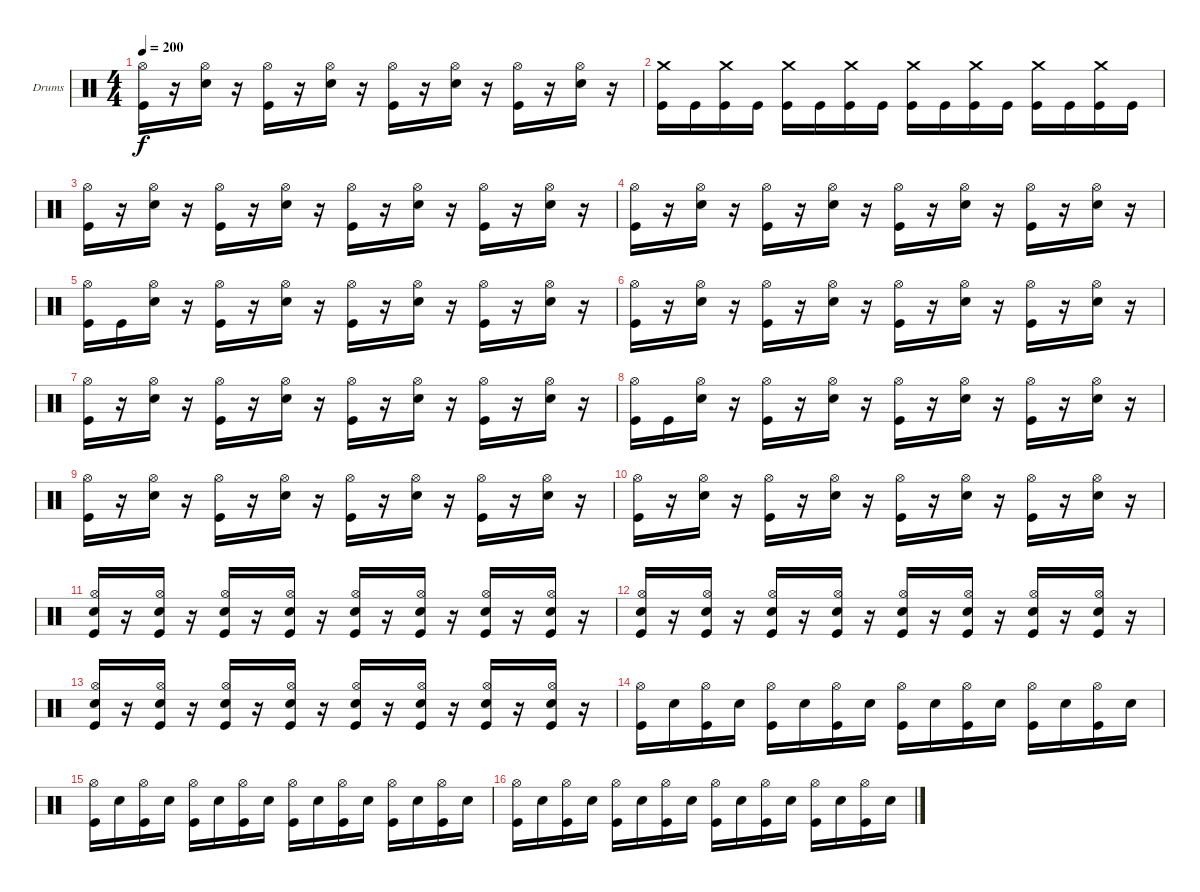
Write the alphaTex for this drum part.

\defaultSystemsLayout 4
\bracketExtendMode groupsimilarinstruments
\firstSystemTrackNameOrientation horizontal
\otherSystemsTrackNameOrientation horizontal
\track ("Drumkit" "Drums") {instrument percussion}
\staff {score}
\articulation defaults
\ts (4 4)
\tempo 200
\clef neutral
\ks c
("Kick (hit)" "Hi-Hat (open)").16{dy f} r.16 ("Snare (hit) 2" "Hi-Hat (open)").16 r.16 ("Kick (hit)" "Hi-Hat (open)").16 r.16 ("Snare (hit) 2" "Hi-Hat (open)").16 r.16 ("Kick (hit)" "Hi-Hat (open)").16 r.16 ("Snare (hit) 2" "Hi-Hat (open)").16 r.16 ("Kick (hit)" "Hi-Hat (open)").16 r.16 ("Snare (hit) 2" "Hi-Hat (open)").16 r.16 |
("Kick (hit)" "Crash medium (hit)").16 "Kick (hit)".16 ("Kick (hit)" "Crash medium (hit)").16 "Kick (hit)".16 ("Kick (hit)" "Crash medium (hit)").16 "Kick (hit)".16 ("Kick (hit)" "Crash medium (hit)").16 "Kick (hit)".16 ("Kick (hit)" "Crash medium (hit)").16 "Kick (hit)".16 ("Kick (hit)" "Crash medium (hit)").16 "Kick (hit)".16 ("Kick (hit)" "Crash medium (hit)").16 "Kick (hit)".16 ("Kick (hit)" "Crash medium (hit)").16 "Kick (hit)".16 |
("Kick (hit)" "Hi-Hat (open)").16 r.16 ("Snare (hit) 2" "Hi-Hat (open)").16 r.16 ("Kick (hit)" "Hi-Hat (open)").16 r.16 ("Snare (hit) 2" "Hi-Hat (open)").16 r.16 ("Kick (hit)" "Hi-Hat (open)").16 r.16 ("Snare (hit) 2" "Hi-Hat (open)").16 r.16 ("Kick (hit)" "Hi-Hat (open)").16 r.16 ("Snare (hit) 2" "Hi-Hat (open)").16 r.16 |
("Kick (hit)" "Hi-Hat (open)").16 r.16 ("Snare (hit) 2" "Hi-Hat (open)").16 r.16 ("Kick (hit)" "Hi-Hat (open)").16 r.16 ("Snare (hit) 2" "Hi-Hat (open)").16 r.16 ("Kick (hit)" "Hi-Hat (open)").16 r.16 ("Snare (hit) 2" "Hi-Hat (open)").16 r.16 ("Kick (hit)" "Hi-Hat (open)").16 r.16 ("Snare (hit) 2" "Hi-Hat (open)").16 r.16 |
("Kick (hit)" "Hi-Hat (open)").16 "Kick (hit)".16 ("Snare (hit) 2" "Hi-Hat (open)").16 r.16 ("Kick (hit)" "Hi-Hat (open)").16 r.16 ("Snare (hit) 2" "Hi-Hat (open)").16 r.16 ("Kick (hit)" "Hi-Hat (open)").16 r.16 ("Snare (hit) 2" "Hi-Hat (open)").16 r.16 ("Kick (hit)" "Hi-Hat (open)").16 r.16 ("Snare (hit) 2" "Hi-Hat (open)").16 r.16 |
("Kick (hit)" "Hi-Hat (open)").16 r.16 ("Snare (hit) 2" "Hi-Hat (open)").16 r.16 ("Kick (hit)" "Hi-Hat (open)").16 r.16 ("Snare (hit) 2" "Hi-Hat (open)").16 r.16 ("Kick (hit)" "Hi-Hat (open)").16 r.16 ("Snare (hit) 2" "Hi-Hat (open)").16 r.16 ("Kick (hit)" "Hi-Hat (open)").16 r.16 ("Snare (hit) 2" "Hi-Hat (open)").16 r.16 |
("Kick (hit)" "Hi-Hat (open)").16 r.16 ("Snare (hit) 2" "Hi-Hat (open)").16 r.16 ("Kick (hit)" "Hi-Hat (open)").16 r.16 ("Snare (hit) 2" "Hi-Hat (open)").16 r.16 ("Kick (hit)" "Hi-Hat (open)").16 r.16 ("Snare (hit) 2" "Hi-Hat (open)").16 r.16 ("Kick (hit)" "Hi-Hat (open)").16 r.16 ("Snare (hit) 2" "Hi-Hat (open)").16 r.16 |
("Kick (hit)" "Hi-Hat (open)").16 "Kick (hit)".16 ("Snare (hit) 2" "Hi-Hat (open)").16 r.16 ("Kick (hit)" "Hi-Hat (open)").16 r.16 ("Snare (hit) 2" "Hi-Hat (open)").16 r.16 ("Kick (hit)" "Hi-Hat (open)").16 r.16 ("Snare (hit) 2" "Hi-Hat (open)").16 r.16 ("Kick (hit)" "Hi-Hat (open)").16 r.16 ("Snare (hit) 2" "Hi-Hat (open)").16 r.16 |
("Kick (hit)" "Hi-Hat (open)").16 r.16 ("Snare (hit) 2" "Hi-Hat (open)").16 r.16 ("Kick (hit)" "Hi-Hat (open)").16 r.16 ("Snare (hit) 2" "Hi-Hat (open)").16 r.16 ("Kick (hit)" "Hi-Hat (open)").16 r.16 ("Snare (hit) 2" "Hi-Hat (open)").16 r.16 ("Kick (hit)" "Hi-Hat (open)").16 r.16 ("Snare (hit) 2" "Hi-Hat (open)").16 r.16 |
("Kick (hit)" "Hi-Hat (open)").16 r.16 ("Snare (hit) 2" "Hi-Hat (open)").16 r.16 ("Kick (hit)" "Hi-Hat (open)").16 r.16 ("Snare (hit) 2" "Hi-Hat (open)").16 r.16 ("Kick (hit)" "Hi-Hat (open)").16 r.16 ("Snare (hit) 2" "Hi-Hat (open)").16 r.16 ("Kick (hit)" "Hi-Hat (open)").16 r.16 ("Snare (hit) 2" "Hi-Hat (open)").16 r.16 |
("Snare (hit) 2" "Kick (hit)" "Hi-Hat (open)").16 r.16 ("Snare (hit) 2" "Kick (hit)" "Hi-Hat (open)").16 r.16 ("Snare (hit) 2" "Kick (hit)" "Hi-Hat (open)").16 r.16 ("Snare (hit) 2" "Kick (hit)" "Hi-Hat (open)").16 r.16 ("Snare (hit) 2" "Kick (hit)" "Hi-Hat (open)").16 r.16 ("Snare (hit) 2" "Kick (hit)" "Hi-Hat (open)").16 r.16 ("Snare (hit) 2" "Kick (hit)" "Hi-Hat (open)").16 r.16 ("Snare (hit) 2" "Kick (hit)" "Hi-Hat (open)").16 r.16 |
("Snare (hit) 2" "Kick (hit)" "Hi-Hat (open)").16 r.16 ("Snare (hit) 2" "Kick (hit)" "Hi-Hat (open)").16 r.16 ("Snare (hit) 2" "Kick (hit)" "Hi-Hat (open)").16 r.16 ("Snare (hit) 2" "Kick (hit)" "Hi-Hat (open)").16 r.16 ("Snare (hit) 2" "Kick (hit)" "Hi-Hat (open)").16 r.16 ("Snare (hit) 2" "Kick (hit)" "Hi-Hat (open)").16 r.16 ("Snare (hit) 2" "Kick (hit)" "Hi-Hat (open)").16 r.16 ("Snare (hit) 2" "Kick (hit)" "Hi-Hat (open)").16 r.16 |
("Snare (hit) 2" "Kick (hit)" "Hi-Hat (open)").16 r.16 ("Snare (hit) 2" "Kick (hit)" "Hi-Hat (open)").16 r.16 ("Snare (hit) 2" "Kick (hit)" "Hi-Hat (open)").16 r.16 ("Snare (hit) 2" "Kick (hit)" "Hi-Hat (open)").16 r.16 ("Snare (hit) 2" "Kick (hit)" "Hi-Hat (open)").16 r.16 ("Snare (hit) 2" "Kick (hit)" "Hi-Hat (open)").16 r.16 ("Snare (hit) 2" "Kick (hit)" "Hi-Hat (open)").16 r.16 ("Snare (hit) 2" "Kick (hit)" "Hi-Hat (open)").16 r.16 |
("Kick (hit)" "Hi-Hat (open)").16 "Snare (hit) 2".16 ("Kick (hit)" "Hi-Hat (open)").16 "Snare (hit) 2".16 ("Kick (hit)" "Hi-Hat (open)").16 "Snare (hit) 2".16 ("Kick (hit)" "Hi-Hat (open)").16 "Snare (hit) 2".16 ("Kick (hit)" "Hi-Hat (open)").16 "Snare (hit) 2".16 ("Kick (hit)" "Hi-Hat (open)").16 "Snare (hit) 2".16 ("Kick (hit)" "Hi-Hat (open)").16 "Snare (hit) 2".16 ("Kick (hit)" "Hi-Hat (open)").16 "Snare (hit) 2".16 |
("Kick (hit)" "Hi-Hat (open)").16 "Snare (hit) 2".16 ("Kick (hit)" "Hi-Hat (open)").16 "Snare (hit) 2".16 ("Kick (hit)" "Hi-Hat (open)").16 "Snare (hit) 2".16 ("Kick (hit)" "Hi-Hat (open)").16 "Snare (hit) 2".16 ("Kick (hit)" "Hi-Hat (open)").16 "Snare (hit) 2".16 ("Kick (hit)" "Hi-Hat (open)").16 "Snare (hit) 2".16 ("Kick (hit)" "Hi-Hat (open)").16 "Snare (hit) 2".16 ("Kick (hit)" "Hi-Hat (open)").16 "Snare (hit) 2".16 |
("Kick (hit)" "Hi-Hat (open)").16 "Snare (hit) 2".16 ("Kick (hit)" "Hi-Hat (open)").16 "Snare (hit) 2".16 ("Kick (hit)" "Hi-Hat (open)").16 "Snare (hit) 2".16 ("Kick (hit)" "Hi-Hat (open)").16 "Snare (hit) 2".16 ("Kick (hit)" "Hi-Hat (open)").16 "Snare (hit) 2".16 ("Kick (hit)" "Hi-Hat (open)").16 "Snare (hit) 2".16 ("Kick (hit)" "Hi-Hat (open)").16 "Snare (hit) 2".16 ("Kick (hit)" "Hi-Hat (open)").16 "Snare (hit) 2".16
